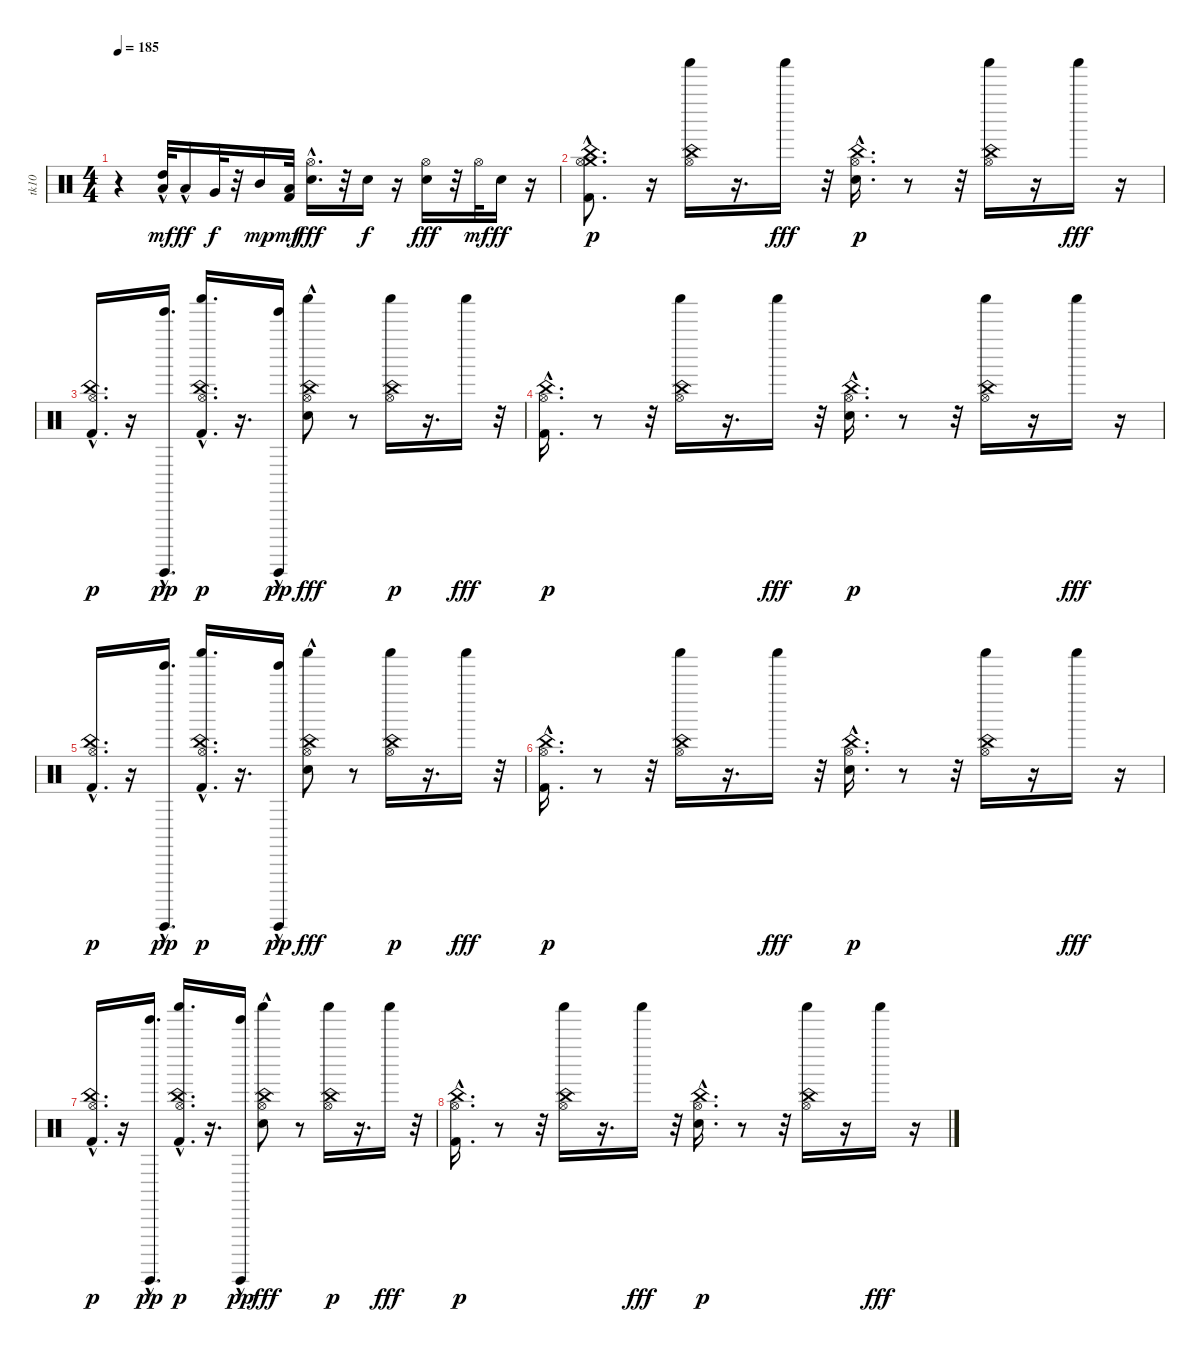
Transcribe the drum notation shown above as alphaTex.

\track ("tk10" "tk10") {instrument percussion}
\staff {score}
\articulation defaults
\ts (4 4)
\tempo 185
\clef neutral
\ks c
r.4{dy mf} ("Low Floor Tom (hit)"{hac} "High Tom (hit)").32 "Low Tom (hit)"{hac}.16{dy ff} "Very Low Tom (hit)".32{dy f} r.32 "Mid Tom (hit)".16{dy mp} ("Kick (hit) 2" "Low Floor Tom (hit)").32{dy mf} ("Electric Snare (hit)" "Hi-Hat (open)"{hac}).16{d dy fff} r.32 "Electric Snare (hit)".16{dy f balance 8} r.16 ("Electric Snare (hit)" "Hi-Hat (open)").16{dy fff} r.32 "Hi-Hat (open)".32{dy mf} "Electric Snare (hit)".16{dy ff} r.16 |
("Kick (hit) 2"{hac} "Crash medium (hit)"{hac} "Hi-Hat (open)" "China (hit)").8{d dy p} r.16 ("Shaker (hit)" "Hi-Hat (open)" "China (hit)").16 r.16{d} "Shaker (hit)".16{dy fff} r.32 ("Electric Snare (hit)"{hac} "Hi-Hat (open)" "China (hit)").16{d dy p} r.8 r.32 ("Shaker (hit)" "Hi-Hat (open)" "China (hit)").16 r.16 "Shaker (hit)".16{dy fff} r.16 |
("Kick (hit) 2"{hac} "Hi-Hat (open)" "China (hit)").16{d dy p} r.16 ("Guiro (hit)" "Tinkle Bell (hit)"{hac}).16{d dy pp} ("Shaker (hit)" "Kick (hit) 2"{hac} "Hi-Hat (open)" "China (hit)").16{d dy p} r.16{d} ("Guiro (hit)" "Tinkle Bell (hit)"{hac}).16{dy pp} ("Electric Snare (hit)" "Hi-Hat (open)" "China (hit)" "Shaker (hit)"{hac}).8{dy fff} r.8 ("Shaker (hit)" "Hi-Hat (open)" "China (hit)").16{dy p} r.16{d} "Shaker (hit)".16{dy fff} r.32 |
("Kick (hit) 2"{hac} "Hi-Hat (open)" "China (hit)").16{d dy p} r.8 r.32 ("Shaker (hit)" "Hi-Hat (open)" "China (hit)").16 r.16{d} "Shaker (hit)".16{dy fff} r.32 ("Electric Snare (hit)"{hac} "Hi-Hat (open)" "China (hit)").16{d dy p} r.8 r.32 ("Shaker (hit)" "Hi-Hat (open)" "China (hit)").16 r.16 "Shaker (hit)".16{dy fff} r.16 |
("Kick (hit) 2"{hac} "Hi-Hat (open)" "China (hit)").16{d dy p} r.16 ("Guiro (hit)" "Tinkle Bell (hit)"{hac}).16{d dy pp} ("Shaker (hit)" "Kick (hit) 2"{hac} "Hi-Hat (open)" "China (hit)").16{d dy p} r.16{d} ("Guiro (hit)" "Tinkle Bell (hit)"{hac}).16{dy pp} ("Electric Snare (hit)" "Hi-Hat (open)" "China (hit)" "Shaker (hit)"{hac}).8{dy fff} r.8 ("Shaker (hit)" "Hi-Hat (open)" "China (hit)").16{dy p} r.16{d} "Shaker (hit)".16{dy fff} r.32 |
("Kick (hit) 2"{hac} "Hi-Hat (open)" "China (hit)").16{d dy p} r.8 r.32 ("Shaker (hit)" "Hi-Hat (open)" "China (hit)").16 r.16{d} "Shaker (hit)".16{dy fff} r.32 ("Electric Snare (hit)"{hac} "Hi-Hat (open)" "China (hit)").16{d dy p} r.8 r.32 ("Shaker (hit)" "Hi-Hat (open)" "China (hit)").16 r.16 "Shaker (hit)".16{dy fff} r.16 |
("Kick (hit) 2"{hac} "Hi-Hat (open)" "China (hit)").16{d dy p} r.16 ("Guiro (hit)" "Tinkle Bell (hit)"{hac}).16{d dy pp} ("Shaker (hit)" "Kick (hit) 2"{hac} "Hi-Hat (open)" "China (hit)").16{d dy p} r.16{d} ("Guiro (hit)" "Tinkle Bell (hit)"{hac}).16{dy pp} ("Electric Snare (hit)" "Hi-Hat (open)" "China (hit)" "Shaker (hit)"{hac}).8{dy fff} r.8 ("Shaker (hit)" "Hi-Hat (open)" "China (hit)").16{dy p} r.16{d} "Shaker (hit)".16{dy fff} r.32 |
("Kick (hit) 2"{hac} "Hi-Hat (open)" "China (hit)").16{d dy p} r.8 r.32 ("Shaker (hit)" "Hi-Hat (open)" "China (hit)").16 r.16{d} "Shaker (hit)".16{dy fff} r.32 ("Electric Snare (hit)"{hac} "Hi-Hat (open)" "China (hit)").16{d dy p} r.8 r.32 ("Shaker (hit)" "Hi-Hat (open)" "China (hit)").16 r.16 "Shaker (hit)".16{dy fff} r.16
